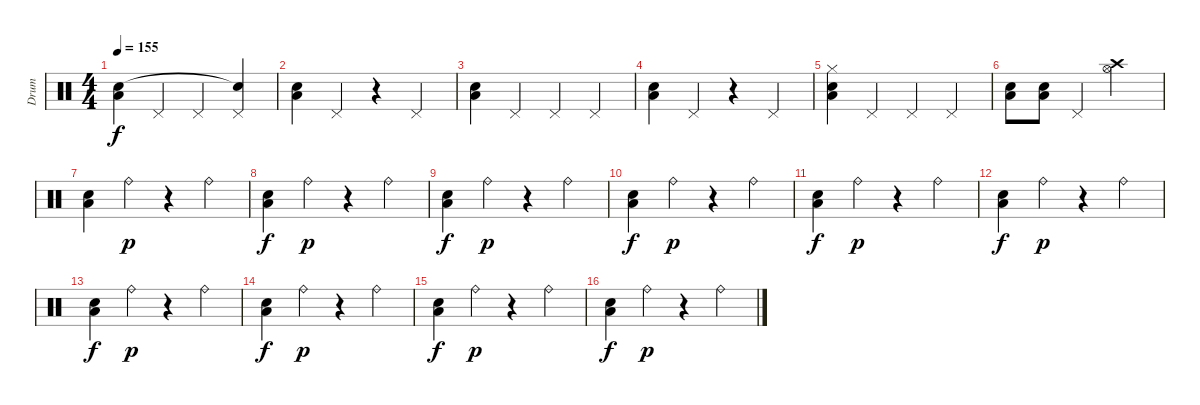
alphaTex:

\track ("Drum" "Drum") {instrument percussion}
\staff {score}
\articulation defaults
\ts (4 4)
\tempo 155
\clef neutral
\ks c
("Low Floor Tom (hit)" "Snare (hit) 2").4{dy f} "Pedal Hi-Hat (hit)".4 "Pedal Hi-Hat (hit)".4 ("Pedal Hi-Hat (hit)" "Snare (hit)"{t}).4 |
("Low Floor Tom (hit)" "Snare (hit) 2").4 "Pedal Hi-Hat (hit)".4 r.4 "Pedal Hi-Hat (hit)".4 |
("Low Floor Tom (hit)" "Snare (hit) 2").4 "Pedal Hi-Hat (hit)".4 "Pedal Hi-Hat (hit)".4 "Pedal Hi-Hat (hit)".4 |
("Low Floor Tom (hit)" "Snare (hit) 2").4 "Pedal Hi-Hat (hit)".4 r.4 "Pedal Hi-Hat (hit)".4 |
("Hi-Hat (closed)" "Low Floor Tom (hit)" "Snare (hit) 2").4 "Pedal Hi-Hat (hit)".4 "Pedal Hi-Hat (hit)".4 "Pedal Hi-Hat (hit)".4 |
("Low Floor Tom (hit)" "Snare (hit) 2").8 ("Low Floor Tom (hit)" "Snare (hit) 2").8 "Pedal Hi-Hat (hit)".4 ("Hi-Hat (open)" "Crash high (hit)").2 |
("Low Floor Tom (hit)" "Snare (hit) 2").4 "Ride (bell)".4{dy p} r.4 "Ride (bell)".4 |
("Low Floor Tom (hit)" "Snare (hit) 2").4{dy f} "Ride (bell)".4{dy p} r.4 "Ride (bell)".4 |
("Low Floor Tom (hit)" "Snare (hit) 2").4{dy f} "Ride (bell)".4{dy p} r.4 "Ride (bell)".4 |
("Low Floor Tom (hit)" "Snare (hit) 2").4{dy f} "Ride (bell)".4{dy p} r.4 "Ride (bell)".4 |
("Low Floor Tom (hit)" "Snare (hit) 2").4{dy f} "Ride (bell)".4{dy p} r.4 "Ride (bell)".4 |
("Low Floor Tom (hit)" "Snare (hit) 2").4{dy f} "Ride (bell)".4{dy p} r.4 "Ride (bell)".4 |
("Low Floor Tom (hit)" "Snare (hit) 2").4{dy f} "Ride (bell)".4{dy p} r.4 "Ride (bell)".4 |
("Low Floor Tom (hit)" "Snare (hit) 2").4{dy f} "Ride (bell)".4{dy p} r.4 "Ride (bell)".4 |
("Low Floor Tom (hit)" "Snare (hit) 2").4{dy f} "Ride (bell)".4{dy p} r.4 "Ride (bell)".4 |
("Low Floor Tom (hit)" "Snare (hit) 2").4{dy f} "Ride (bell)".4{dy p} r.4 "Ride (bell)".4
